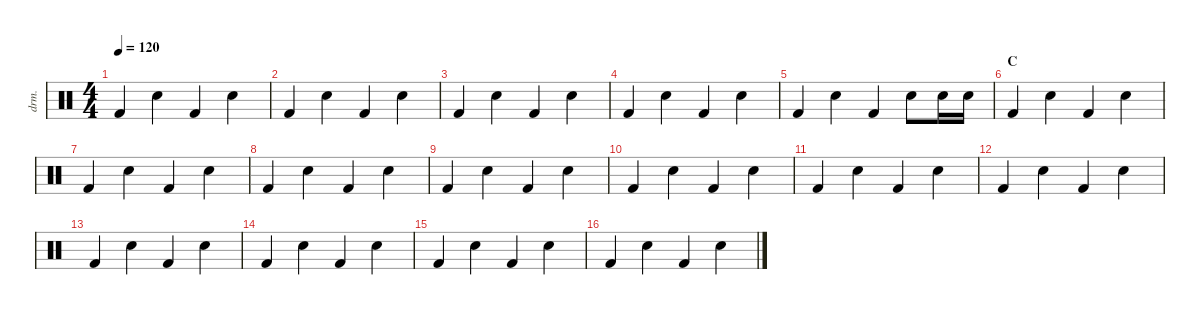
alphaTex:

\defaultSystemsLayout 4
\hideDynamics
\bracketExtendMode nobrackets
\otherSystemsTrackNameOrientation horizontal
\track ("Batterie" "drm.") {instrument percussion}
\staff {score}
\articulation defaults
\ts (4 4)
\tempo 120
\clef neutral
\ks c "Kick (hit) 2".4{dy f} "Snare (hit) 2".4 "Kick (hit) 2".4 "Snare (hit) 2".4
|
"Kick (hit) 2".4 "Snare (hit) 2".4 "Kick (hit) 2".4 "Snare (hit) 2".4 |
"Kick (hit) 2".4 "Snare (hit) 2".4 "Kick (hit) 2".4 "Snare (hit) 2".4 |
"Kick (hit) 2".4 "Snare (hit) 2".4 "Kick (hit) 2".4 "Snare (hit) 2".4 |
"Kick (hit) 2".4 "Snare (hit) 2".4 "Kick (hit) 2".4 "Snare (hit) 2".8 "Snare (hit) 2".16 "Snare (hit) 2".16 |
\section ("" "C")
"Kick (hit) 2".4 "Snare (hit) 2".4 "Kick (hit) 2".4 "Snare (hit) 2".4 |
"Kick (hit) 2".4 "Snare (hit) 2".4 "Kick (hit) 2".4 "Snare (hit) 2".4 |
"Kick (hit) 2".4 "Snare (hit) 2".4 "Kick (hit) 2".4 "Snare (hit) 2".4 |
"Kick (hit) 2".4 "Snare (hit) 2".4 "Kick (hit) 2".4 "Snare (hit) 2".4 |
"Kick (hit) 2".4 "Snare (hit) 2".4 "Kick (hit) 2".4 "Snare (hit) 2".4 |
"Kick (hit) 2".4 "Snare (hit) 2".4 "Kick (hit) 2".4 "Snare (hit) 2".4 |
"Kick (hit) 2".4 "Snare (hit) 2".4 "Kick (hit) 2".4 "Snare (hit) 2".4 |
"Kick (hit) 2".4 "Snare (hit) 2".4 "Kick (hit) 2".4 "Snare (hit) 2".4 |
"Kick (hit) 2".4 "Snare (hit) 2".4 "Kick (hit) 2".4 "Snare (hit) 2".4 |
"Kick (hit) 2".4 "Snare (hit) 2".4 "Kick (hit) 2".4 "Snare (hit) 2".4 |
"Kick (hit) 2".4 "Snare (hit) 2".4 "Kick (hit) 2".4 "Snare (hit) 2".4
